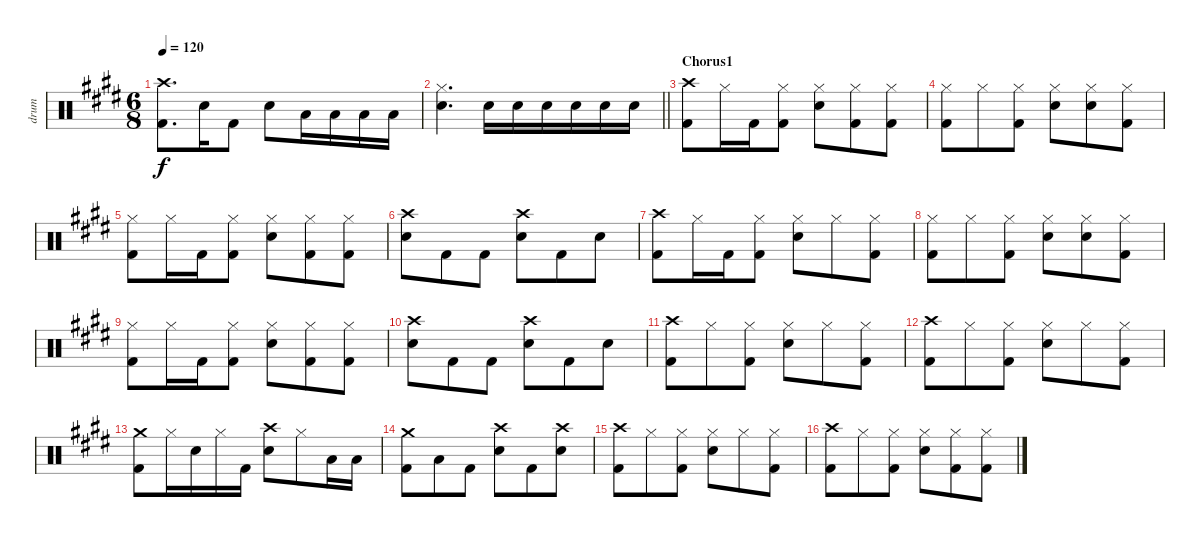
\track ("drum" "drum") {instrument percussion}
\staff {score}
\articulation defaults
\ts (6 8)
\tempo 120
\clef neutral
\ks e
("Crash high (hit)" "Kick (hit) 2").8{d dy f} "Snare (hit) 2".16 "Kick (hit) 2".8 "Snare (hit) 2".8 "Low Tom (hit)".16 "Low Tom (hit)".16 "Low Floor Tom (hit)".16 "Low Floor Tom (hit)".16 |
\barLineRight lightlight
("Hi-Hat (closed)" "Snare (hit) 2").4{d} "Snare (hit) 2".16 "Snare (hit) 2".16 "Snare (hit) 2".16 "Snare (hit) 2".16 "Snare (hit) 2".16 "Snare (hit) 2".16 |
\section ("" "Chorus1")
("Crash high (hit)" "Kick (hit) 2").8 "Hi-Hat (closed)".16 "Kick (hit) 2".16 ("Hi-Hat (closed)" "Kick (hit) 2").8 ("Hi-Hat (closed)" "Snare (hit) 2").8 ("Hi-Hat (closed)" "Kick (hit) 2").8 ("Hi-Hat (closed)" "Kick (hit) 2").8 |
("Hi-Hat (closed)" "Kick (hit) 2").8 "Hi-Hat (closed)".8 ("Hi-Hat (closed)" "Kick (hit) 2").8 ("Hi-Hat (closed)" "Snare (hit) 2").8 ("Hi-Hat (closed)" "Snare (hit) 2").8 ("Hi-Hat (closed)" "Kick (hit) 2").8 |
("Hi-Hat (closed)" "Kick (hit) 2").8 "Hi-Hat (closed)".16 "Kick (hit) 2".16 ("Hi-Hat (closed)" "Kick (hit) 2").8 ("Hi-Hat (closed)" "Snare (hit) 2").8 ("Hi-Hat (closed)" "Kick (hit) 2").8 ("Hi-Hat (closed)" "Kick (hit) 2").8 |
("Crash high (hit)" "Snare (hit) 2").8 "Kick (hit) 2".8 "Kick (hit) 2".8 ("Crash high (hit)" "Snare (hit) 2").8 "Kick (hit) 2".8 "Snare (hit) 2".8 |
("Crash high (hit)" "Kick (hit) 2").8 "Hi-Hat (closed)".16 "Kick (hit) 2".16 ("Hi-Hat (closed)" "Kick (hit) 2").8 ("Hi-Hat (closed)" "Snare (hit) 2").8 "Hi-Hat (closed)".8 ("Hi-Hat (closed)" "Kick (hit) 2").8 |
("Hi-Hat (closed)" "Kick (hit) 2").8 "Hi-Hat (closed)".8 ("Hi-Hat (closed)" "Kick (hit) 2").8 ("Hi-Hat (closed)" "Snare (hit) 2").8 ("Hi-Hat (closed)" "Snare (hit) 2").8 ("Hi-Hat (closed)" "Kick (hit) 2").8 |
("Hi-Hat (closed)" "Kick (hit) 2").8 "Hi-Hat (closed)".16 "Kick (hit) 2".16 ("Hi-Hat (closed)" "Kick (hit) 2").8 ("Hi-Hat (closed)" "Snare (hit) 2").8 ("Hi-Hat (closed)" "Kick (hit) 2").8 ("Hi-Hat (closed)" "Kick (hit) 2").8 |
("Crash high (hit)" "Snare (hit) 2").8 "Kick (hit) 2".8 "Kick (hit) 2".8 ("Crash high (hit)" "Snare (hit) 2").8 "Kick (hit) 2".8 "Snare (hit) 2".8 |
("Crash high (hit)" "Kick (hit) 2").8 "Hi-Hat (closed)".8 ("Hi-Hat (closed)" "Kick (hit) 2").8 ("Hi-Hat (closed)" "Snare (hit) 2").8 "Hi-Hat (closed)".8 ("Hi-Hat (closed)" "Kick (hit) 2").8 |
("Crash high (hit)" "Kick (hit) 2").8 "Hi-Hat (closed)".8 ("Hi-Hat (closed)" "Kick (hit) 2").8 ("Hi-Hat (closed)" "Snare (hit) 2").8 "Hi-Hat (closed)".8 ("Hi-Hat (closed)" "Kick (hit) 2").8 |
("Crash medium (hit)" "Kick (hit) 2").8 "Hi-Hat (closed)".16 "Snare (hit) 2".16 "Hi-Hat (closed)".16 "Kick (hit) 2".16 ("Crash high (hit)" "Snare (hit) 2").8 "Hi-Hat (closed)".8 "Low Tom (hit)".16 "Low Tom (hit)".16 |
("Crash medium (hit)" "Kick (hit) 2").8 "Low Floor Tom (hit)".8 "Kick (hit) 2".8 ("Crash high (hit)" "Snare (hit) 2").8 "Kick (hit) 2".8 ("Crash high (hit)" "Snare (hit) 2").8 |
("Crash high (hit)" "Kick (hit) 2").8 "Hi-Hat (closed)".8 ("Hi-Hat (closed)" "Kick (hit) 2").8 ("Hi-Hat (closed)" "Snare (hit) 2").8 "Hi-Hat (closed)".8 ("Hi-Hat (closed)" "Kick (hit) 2").8 |
("Crash high (hit)" "Kick (hit) 2").8 "Hi-Hat (closed)".8 ("Hi-Hat (closed)" "Kick (hit) 2").8 ("Hi-Hat (closed)" "Snare (hit) 2").8 ("Hi-Hat (closed)" "Kick (hit) 2").8 ("Hi-Hat (closed)" "Kick (hit) 2").8
